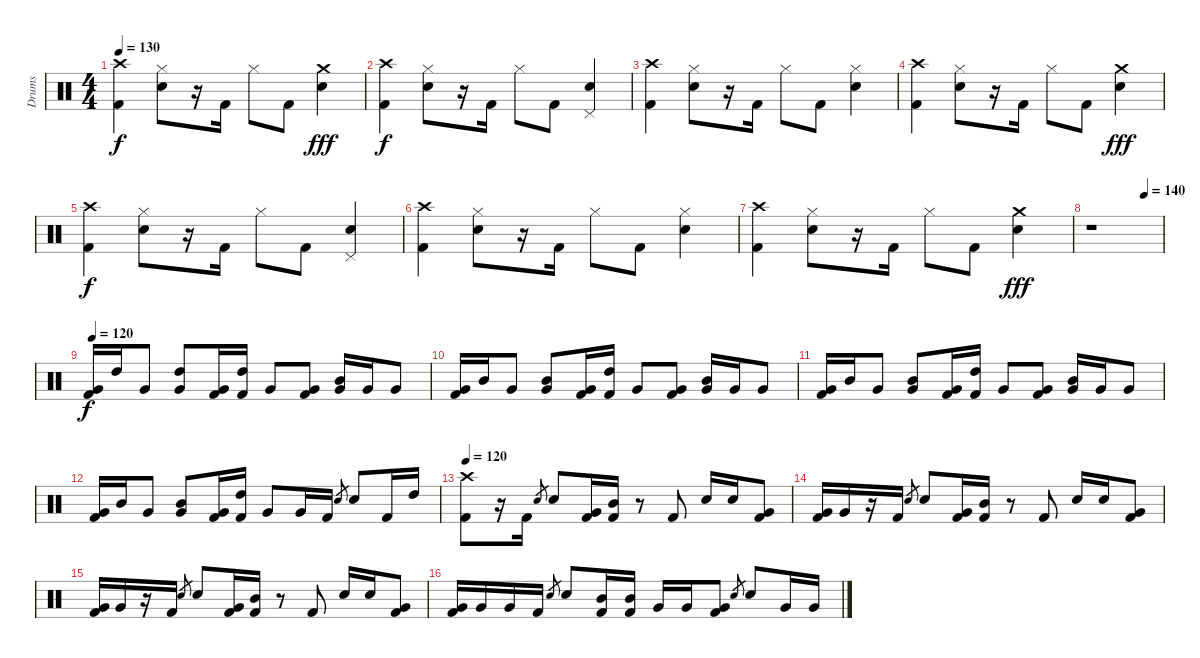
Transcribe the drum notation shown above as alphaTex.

\track ("Drums" "Drums") {instrument percussion}
\staff {score}
\articulation defaults
\ts (4 4)
\tempo 130
\clef neutral
\ks c
("Crash high (hit)" "Kick (hit) 2").4{dy f} ("Hi-Hat (closed)" "Electric Snare (hit)").8 r.16 "Kick (hit) 2".16 "Hi-Hat (closed)".8 "Kick (hit) 2".8 ("Crash medium (hit)" "Electric Snare (hit)").4{dy fff} |
("Crash high (hit)" "Kick (hit) 2").4{dy f} ("Hi-Hat (closed)" "Electric Snare (hit)").8 r.16 "Kick (hit) 2".16 "Hi-Hat (closed)".8 "Kick (hit) 2".8 ("Pedal Hi-Hat (hit)" "Electric Snare (hit)").4 |
("Crash high (hit)" "Kick (hit) 2").4 ("Hi-Hat (closed)" "Electric Snare (hit)").8 r.16 "Kick (hit) 2".16 "Hi-Hat (closed)".8 "Kick (hit) 2".8 ("Hi-Hat (closed)" "Electric Snare (hit)").4 |
("Crash high (hit)" "Kick (hit) 2").4 ("Hi-Hat (closed)" "Electric Snare (hit)").8 r.16 "Kick (hit) 2".16 "Hi-Hat (closed)".8 "Kick (hit) 2".8 ("Crash medium (hit)" "Electric Snare (hit)").4{dy fff} |
("Crash high (hit)" "Kick (hit) 2").4{dy f} ("Hi-Hat (closed)" "Electric Snare (hit)").8 r.16 "Kick (hit) 2".16 "Hi-Hat (closed)".8 "Kick (hit) 2".8 ("Pedal Hi-Hat (hit)" "Electric Snare (hit)").4 |
("Crash high (hit)" "Kick (hit) 2").4 ("Hi-Hat (closed)" "Electric Snare (hit)").8 r.16 "Kick (hit) 2".16 "Hi-Hat (closed)".8 "Kick (hit) 2".8 ("Hi-Hat (closed)" "Electric Snare (hit)").4 |
("Crash high (hit)" "Kick (hit) 2").4 ("Hi-Hat (closed)" "Electric Snare (hit)").8 r.16 "Kick (hit) 2".16 "Hi-Hat (closed)".8 "Kick (hit) 2".8 ("Crash medium (hit)" "Electric Snare (hit)").4{dy fff} |
\tempo (140 0.75)
r.1 |
\tempo 120
("Very Low Tom (hit)" "Kick (hit) 2").16{dy f} "High Tom (hit)".16 "Very Low Tom (hit)".8 ("High Tom (hit)" "Very Low Tom (hit)").8 ("Very Low Tom (hit)" "Kick (hit) 2").16 ("High Tom (hit)" "Kick (hit) 2").16 "Very Low Tom (hit)".8 ("Very Low Tom (hit)" "Kick (hit) 2").8 ("Mid Tom (hit)" "Very Low Tom (hit)").16 "Very Low Tom (hit)".16 "Very Low Tom (hit)".8 |
("Very Low Tom (hit)" "Kick (hit) 2").16 "Mid Tom (hit)".16 "Very Low Tom (hit)".8 ("Mid Tom (hit)" "Very Low Tom (hit)").8 ("Very Low Tom (hit)" "Kick (hit) 2").16 ("High Tom (hit)" "Kick (hit) 2").16 "Very Low Tom (hit)".8 ("Very Low Tom (hit)" "Kick (hit) 2").8 ("Mid Tom (hit)" "Very Low Tom (hit)").16 "Very Low Tom (hit)".16 "Very Low Tom (hit)".8 |
("Very Low Tom (hit)" "Kick (hit) 2").16 "Mid Tom (hit)".16 "Very Low Tom (hit)".8 ("Mid Tom (hit)" "Very Low Tom (hit)").8 ("Very Low Tom (hit)" "Kick (hit) 2").16 ("High Tom (hit)" "Kick (hit) 2").16 "Very Low Tom (hit)".8 ("Very Low Tom (hit)" "Kick (hit) 2").8 ("Mid Tom (hit)" "Very Low Tom (hit)").16 "Very Low Tom (hit)".16 "Very Low Tom (hit)".8 |
("Very Low Tom (hit)" "Kick (hit) 2").16 "Mid Tom (hit)".16 "Very Low Tom (hit)".8 ("Mid Tom (hit)" "Very Low Tom (hit)").8 ("Very Low Tom (hit)" "Kick (hit) 2").16 ("High Tom (hit)" "Kick (hit) 2").16 "Very Low Tom (hit)".8 "Very Low Tom (hit)".16 "Kick (hit) 2".16 "Electric Snare (hit)".8{gr} "Electric Snare (hit)".8 "Kick (hit) 2".16 "High Tom (hit)".16 |
\tempo 120
("Crash high (hit)" "Kick (hit) 2").8 r.16 "Kick (hit) 2".16 "Electric Snare (hit)".8{gr} "Electric Snare (hit)".8 ("Very Low Tom (hit)" "Kick (hit) 2").16 ("Mid Tom (hit)" "Kick (hit) 2").16 r.8 "Kick (hit) 2".8 "Electric Snare (hit)".16 "Electric Snare (hit)".16 ("Very Low Tom (hit)" "Kick (hit) 2").8 |
("Very Low Tom (hit)" "Kick (hit) 2").16 "Very Low Tom (hit)".16 r.16 "Kick (hit) 2".16 "Electric Snare (hit)".8{gr} "Electric Snare (hit)".8 ("Very Low Tom (hit)" "Kick (hit) 2").16 ("Mid Tom (hit)" "Kick (hit) 2").16 r.8 "Kick (hit) 2".8 "Electric Snare (hit)".16 "Electric Snare (hit)".16 ("Very Low Tom (hit)" "Kick (hit) 2").8 |
("Very Low Tom (hit)" "Kick (hit) 2").16 "Very Low Tom (hit)".16 r.16 "Kick (hit) 2".16 "Electric Snare (hit)".8{gr} "Electric Snare (hit)".8 ("Very Low Tom (hit)" "Kick (hit) 2").16 ("Mid Tom (hit)" "Kick (hit) 2").16 r.8 "Kick (hit) 2".8 "Electric Snare (hit)".16 "Electric Snare (hit)".16 ("Very Low Tom (hit)" "Kick (hit) 2").8 |
("Very Low Tom (hit)" "Kick (hit) 2").16 "Very Low Tom (hit)".16 "Very Low Tom (hit)".16 "Kick (hit) 2".16 "Electric Snare (hit)".8{gr} "Electric Snare (hit)".8 ("Mid Tom (hit)" "Kick (hit) 2").16 ("Mid Tom (hit)" "Kick (hit) 2").16 "Very Low Tom (hit)".16 "Very Low Tom (hit)".16 ("Very Low Tom (hit)" "Kick (hit) 2").8 "Electric Snare (hit)".8{gr} "Electric Snare (hit)".8 "Very Low Tom (hit)".16 "Very Low Tom (hit)".16
